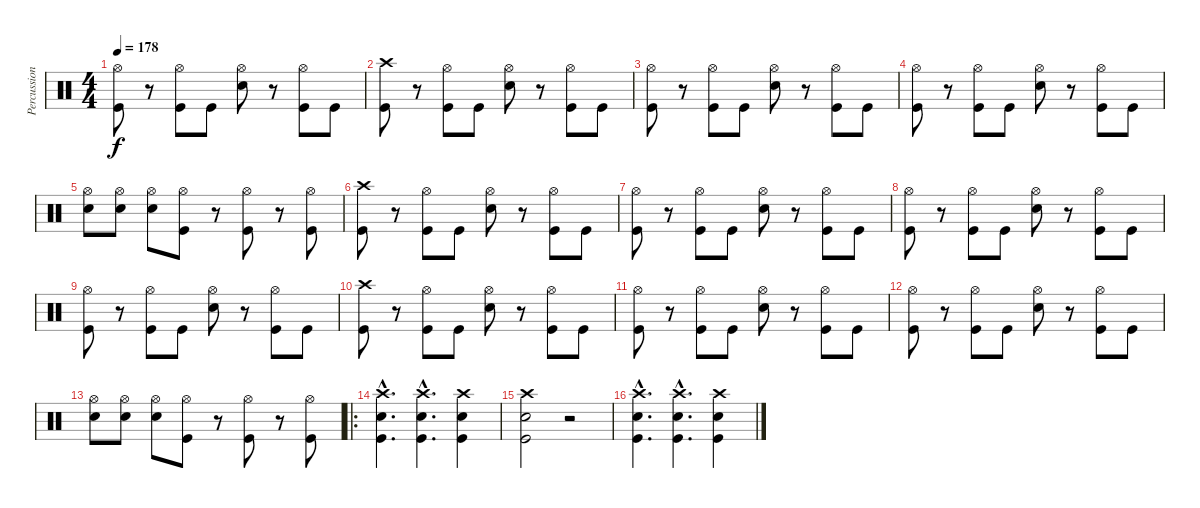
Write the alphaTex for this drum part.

\track ("Percussion" "Percussion") {instrument percussion}
\staff {score}
\articulation defaults
\ts (4 4)
\tempo 178
\clef neutral
\ks c
("Hi-Hat (open)" "Kick (hit)").8{dy f} r.8 ("Hi-Hat (open)" "Kick (hit)").8 "Kick (hit)".8 ("Hi-Hat (open)" "Snare (hit) 2").8 r.8 ("Hi-Hat (open)" "Kick (hit)").8 "Kick (hit)".8 |
("Crash high (hit)" "Kick (hit)").8 r.8 ("Hi-Hat (open)" "Kick (hit)").8 "Kick (hit)".8 ("Hi-Hat (open)" "Snare (hit) 2").8 r.8 ("Hi-Hat (open)" "Kick (hit)").8 "Kick (hit)".8 |
("Hi-Hat (open)" "Kick (hit)").8 r.8 ("Hi-Hat (open)" "Kick (hit)").8 "Kick (hit)".8 ("Hi-Hat (open)" "Snare (hit) 2").8 r.8 ("Hi-Hat (open)" "Kick (hit)").8 "Kick (hit)".8 |
("Hi-Hat (open)" "Kick (hit)").8 r.8 ("Hi-Hat (open)" "Kick (hit)").8 "Kick (hit)".8 ("Hi-Hat (open)" "Snare (hit) 2").8 r.8 ("Hi-Hat (open)" "Kick (hit)").8 "Kick (hit)".8 |
("Hi-Hat (open)" "Snare (hit) 2").8 ("Hi-Hat (open)" "Snare (hit) 2").8 ("Hi-Hat (open)" "Snare (hit) 2").8 ("Hi-Hat (open)" "Kick (hit)").8 r.8 ("Hi-Hat (open)" "Kick (hit)").8 r.8 ("Hi-Hat (open)" "Kick (hit)").8 |
("Crash high (hit)" "Kick (hit)").8 r.8 ("Hi-Hat (open)" "Kick (hit)").8 "Kick (hit)".8 ("Hi-Hat (open)" "Snare (hit) 2").8 r.8 ("Hi-Hat (open)" "Kick (hit)").8 "Kick (hit)".8 |
("Hi-Hat (open)" "Kick (hit)").8 r.8 ("Hi-Hat (open)" "Kick (hit)").8 "Kick (hit)".8 ("Hi-Hat (open)" "Snare (hit) 2").8 r.8 ("Hi-Hat (open)" "Kick (hit)").8 "Kick (hit)".8 |
("Hi-Hat (open)" "Kick (hit)").8 r.8 ("Hi-Hat (open)" "Kick (hit)").8 "Kick (hit)".8 ("Hi-Hat (open)" "Snare (hit) 2").8 r.8 ("Hi-Hat (open)" "Kick (hit)").8 "Kick (hit)".8 |
("Hi-Hat (open)" "Kick (hit)").8 r.8 ("Hi-Hat (open)" "Kick (hit)").8 "Kick (hit)".8 ("Hi-Hat (open)" "Snare (hit) 2").8 r.8 ("Hi-Hat (open)" "Kick (hit)").8 "Kick (hit)".8 |
("Crash high (hit)" "Kick (hit)").8 r.8 ("Hi-Hat (open)" "Kick (hit)").8 "Kick (hit)".8 ("Hi-Hat (open)" "Snare (hit) 2").8 r.8 ("Hi-Hat (open)" "Kick (hit)").8 "Kick (hit)".8 |
("Hi-Hat (open)" "Kick (hit)").8 r.8 ("Hi-Hat (open)" "Kick (hit)").8 "Kick (hit)".8 ("Hi-Hat (open)" "Snare (hit) 2").8 r.8 ("Hi-Hat (open)" "Kick (hit)").8 "Kick (hit)".8 |
("Hi-Hat (open)" "Kick (hit)").8 r.8 ("Hi-Hat (open)" "Kick (hit)").8 "Kick (hit)".8 ("Hi-Hat (open)" "Snare (hit) 2").8 r.8 ("Hi-Hat (open)" "Kick (hit)").8 "Kick (hit)".8 |
("Hi-Hat (open)" "Snare (hit) 2").8 ("Hi-Hat (open)" "Snare (hit) 2").8 ("Hi-Hat (open)" "Snare (hit) 2").8 ("Hi-Hat (open)" "Kick (hit)").8 r.8 ("Hi-Hat (open)" "Kick (hit)").8 r.8 ("Hi-Hat (open)" "Kick (hit)").8 |
\ro
("Crash high (hit)"{hac} "Kick (hit)"{hac} "Snare (hit) 2"{hac}).4{d} ("Crash high (hit)"{hac} "Kick (hit)"{hac} "Snare (hit) 2"{hac}).4{d} ("Crash high (hit)" "Kick (hit)" "Snare (hit) 2").4 |
("Crash high (hit)" "Kick (hit)" "Snare (hit) 2").2 r.2 |
("Crash high (hit)"{hac} "Kick (hit)"{hac} "Snare (hit) 2"{hac}).4{d} ("Crash high (hit)"{hac} "Kick (hit)"{hac} "Snare (hit) 2"{hac}).4{d} ("Crash high (hit)" "Kick (hit)" "Snare (hit) 2").4
